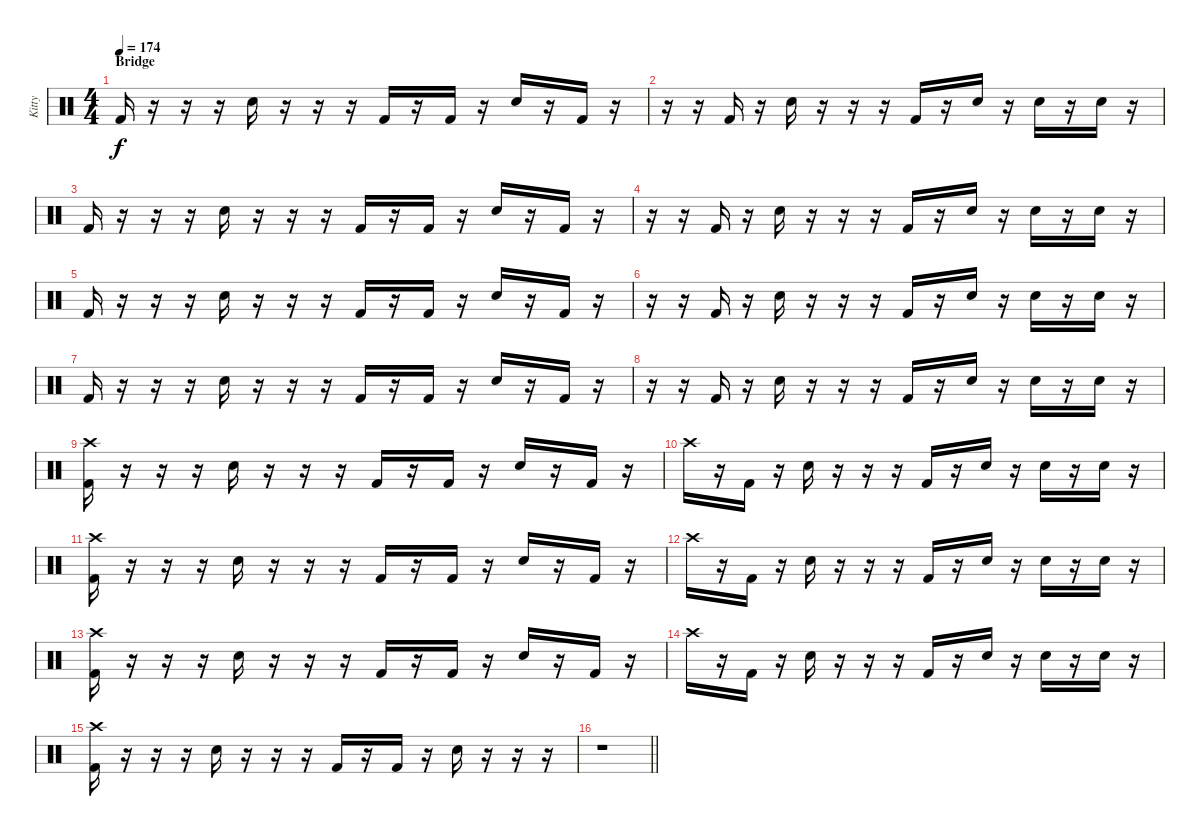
\track ("Kitty" "Kitty") {instrument percussion}
\staff {score}
\articulation defaults
\ts (4 4)
\section ("" "Bridge")
\tempo 174
\clef neutral
\ks c "Kick (hit) 2".16{dy f}
r.16 r.16 r.16 "Snare (hit) 2".16 r.16 r.16 r.16 "Kick (hit) 2".16 r.16 "Kick (hit) 2".16 r.16 "Snare (hit) 2".16 r.16 "Kick (hit) 2".16 r.16 |
r.16 r.16 "Kick (hit) 2".16 r.16 "Snare (hit) 2".16 r.16 r.16 r.16 "Kick (hit) 2".16 r.16 "Snare (hit) 2".16 r.16 "Snare (hit) 2".16 r.16 "Snare (hit) 2".16 r.16 |
"Kick (hit) 2".16 r.16 r.16 r.16 "Snare (hit) 2".16 r.16 r.16 r.16 "Kick (hit) 2".16 r.16 "Kick (hit) 2".16 r.16 "Snare (hit) 2".16 r.16 "Kick (hit) 2".16 r.16 |
r.16 r.16 "Kick (hit) 2".16 r.16 "Snare (hit) 2".16 r.16 r.16 r.16 "Kick (hit) 2".16 r.16 "Snare (hit) 2".16 r.16 "Snare (hit) 2".16 r.16 "Snare (hit) 2".16 r.16 |
"Kick (hit) 2".16 r.16 r.16 r.16 "Snare (hit) 2".16 r.16 r.16 r.16 "Kick (hit) 2".16 r.16 "Kick (hit) 2".16 r.16 "Snare (hit) 2".16 r.16 "Kick (hit) 2".16 r.16 |
r.16 r.16 "Kick (hit) 2".16 r.16 "Snare (hit) 2".16 r.16 r.16 r.16 "Kick (hit) 2".16 r.16 "Snare (hit) 2".16 r.16 "Snare (hit) 2".16 r.16 "Snare (hit) 2".16 r.16 |
"Kick (hit) 2".16 r.16 r.16 r.16 "Snare (hit) 2".16 r.16 r.16 r.16 "Kick (hit) 2".16 r.16 "Kick (hit) 2".16 r.16 "Snare (hit) 2".16 r.16 "Kick (hit) 2".16 r.16 |
r.16 r.16 "Kick (hit) 2".16 r.16 "Snare (hit) 2".16 r.16 r.16 r.16 "Kick (hit) 2".16 r.16 "Snare (hit) 2".16 r.16 "Snare (hit) 2".16 r.16 "Snare (hit) 2".16 r.16 |
("Crash high (hit)" "Kick (hit) 2").16 r.16 r.16 r.16 "Snare (hit) 2".16 r.16 r.16 r.16 "Kick (hit) 2".16 r.16 "Kick (hit) 2".16 r.16 "Snare (hit) 2".16 r.16 "Kick (hit) 2".16 r.16 |
"Crash high (hit)".16 r.16 "Kick (hit) 2".16 r.16 "Snare (hit) 2".16 r.16 r.16 r.16 "Kick (hit) 2".16 r.16 "Snare (hit) 2".16 r.16 "Snare (hit) 2".16 r.16 "Snare (hit) 2".16 r.16 |
("Crash high (hit)" "Kick (hit) 2").16 r.16 r.16 r.16 "Snare (hit) 2".16 r.16 r.16 r.16 "Kick (hit) 2".16 r.16 "Kick (hit) 2".16 r.16 "Snare (hit) 2".16 r.16 "Kick (hit) 2".16 r.16 |
"Crash high (hit)".16 r.16 "Kick (hit) 2".16 r.16 "Snare (hit) 2".16 r.16 r.16 r.16 "Kick (hit) 2".16 r.16 "Snare (hit) 2".16 r.16 "Snare (hit) 2".16 r.16 "Snare (hit) 2".16 r.16 |
("Crash high (hit)" "Kick (hit) 2").16 r.16 r.16 r.16 "Snare (hit) 2".16 r.16 r.16 r.16 "Kick (hit) 2".16 r.16 "Kick (hit) 2".16 r.16 "Snare (hit) 2".16 r.16 "Kick (hit) 2".16 r.16 |
"Crash high (hit)".16 r.16 "Kick (hit) 2".16 r.16 "Snare (hit) 2".16 r.16 r.16 r.16 "Kick (hit) 2".16 r.16 "Snare (hit) 2".16 r.16 "Snare (hit) 2".16 r.16 "Snare (hit) 2".16 r.16 |
("Crash high (hit)" "Kick (hit) 2").16 r.16 r.16 r.16 "Snare (hit) 2".16 r.16 r.16 r.16 "Kick (hit) 2".16 r.16 "Kick (hit) 2".16 r.16 "Snare (hit) 2".16 r.16 r.16 r.16 |
\barLineRight lightlight
r.1
